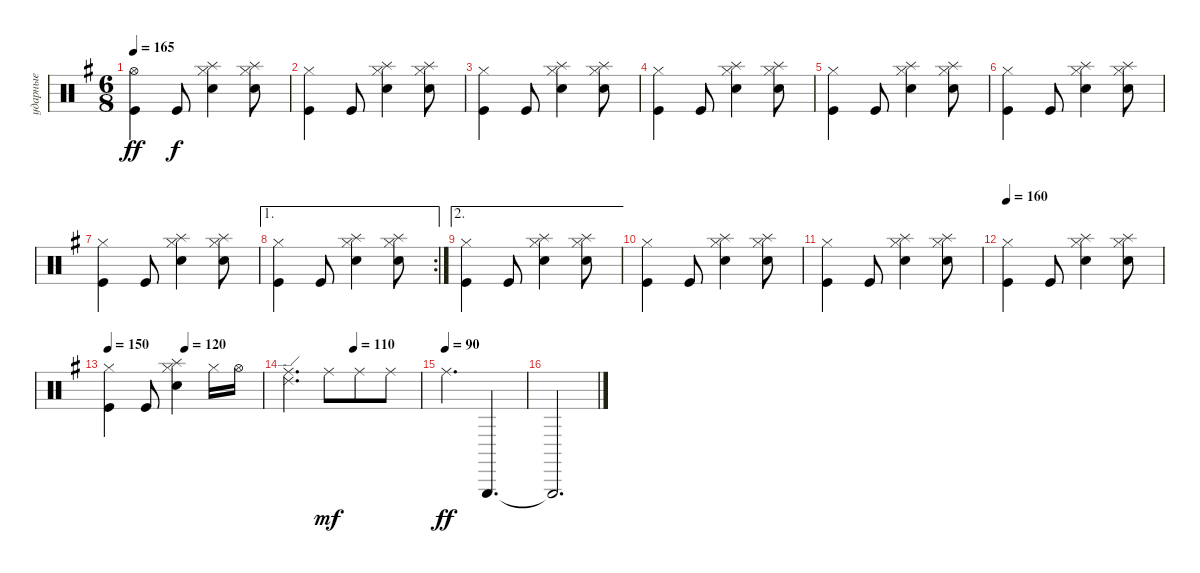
\track ("ударные" "ударные") {instrument percussion}
\staff {score}
\articulation defaults
\ts (6 8)
\tempo 165
\clef neutral
\ks eminor
("Kick (hit)" "Hi-Hat (open)").4{dy ff} "Kick (hit)".8{dy f} ("Snare (hit) 2" "Hi-Hat (closed)" "Splash (hit)").4 ("Snare (hit) 2" "Hi-Hat (closed)" "Splash (hit)").8 |
("Kick (hit)" "Hi-Hat (closed)").4 "Kick (hit)".8 ("Snare (hit) 2" "Hi-Hat (closed)" "Splash (hit)").4 ("Snare (hit) 2" "Hi-Hat (closed)" "Splash (hit)").8 |
("Kick (hit)" "Hi-Hat (closed)").4 "Kick (hit)".8 ("Snare (hit) 2" "Hi-Hat (closed)" "Splash (hit)").4 ("Snare (hit) 2" "Hi-Hat (closed)" "Splash (hit)").8 |
("Kick (hit)" "Hi-Hat (closed)").4 "Kick (hit)".8 ("Snare (hit) 2" "Hi-Hat (closed)" "Splash (hit)").4 ("Snare (hit) 2" "Hi-Hat (closed)" "Splash (hit)").8 |
("Kick (hit)" "Hi-Hat (closed)").4 "Kick (hit)".8 ("Snare (hit) 2" "Hi-Hat (closed)" "Splash (hit)").4 ("Snare (hit) 2" "Hi-Hat (closed)" "Splash (hit)").8 |
("Kick (hit)" "Hi-Hat (closed)").4 "Kick (hit)".8 ("Snare (hit) 2" "Hi-Hat (closed)" "Splash (hit)").4 ("Snare (hit) 2" "Hi-Hat (closed)" "Splash (hit)").8 |
("Kick (hit)" "Hi-Hat (closed)").4 "Kick (hit)".8 ("Snare (hit) 2" "Hi-Hat (closed)" "Splash (hit)").4 ("Snare (hit) 2" "Hi-Hat (closed)" "Splash (hit)").8 |
\ae 1
\rc 2
("Kick (hit)" "Hi-Hat (closed)").4 "Kick (hit)".8 ("Snare (hit) 2" "Hi-Hat (closed)" "Splash (hit)").4 ("Snare (hit) 2" "Hi-Hat (closed)" "Splash (hit)").8 |
\ae 2
("Kick (hit)" "Hi-Hat (closed)").4 "Kick (hit)".8 ("Snare (hit) 2" "Hi-Hat (closed)" "Splash (hit)").4 ("Snare (hit) 2" "Hi-Hat (closed)" "Splash (hit)").8 |
("Kick (hit)" "Hi-Hat (closed)").4 "Kick (hit)".8 ("Snare (hit) 2" "Hi-Hat (closed)" "Splash (hit)").4 ("Snare (hit) 2" "Hi-Hat (closed)" "Splash (hit)").8 |
("Kick (hit)" "Hi-Hat (closed)").4 "Kick (hit)".8 ("Snare (hit) 2" "Hi-Hat (closed)" "Splash (hit)").4 ("Snare (hit) 2" "Hi-Hat (closed)" "Splash (hit)").8 |
\tempo 160
("Kick (hit)" "Hi-Hat (closed)").4 "Kick (hit)".8 ("Snare (hit) 2" "Hi-Hat (closed)" "Splash (hit)").4 ("Snare (hit) 2" "Hi-Hat (closed)" "Splash (hit)").8 |
\tempo 150
\tempo (120 0.5)
("Kick (hit)" "Hi-Hat (closed)").4 "Kick (hit)".8 ("Snare (hit) 2" "Hi-Hat (closed)" "Splash (hit)").4 "Hi-Hat (closed)".16 "Hi-Hat (open)".16 |
\tempo (110 0.5)
("Ride (edge) 2" "Ride (middle)").4{d} "Ride (middle)".8{dy mf} "Ride (middle)".8 "Ride (middle)".8 |
\tempo (90)
"Ride (middle)".4{d dy ff} "Triangle (hit)".4{d} |
"Triangle (hit)"{t}.2{d}
